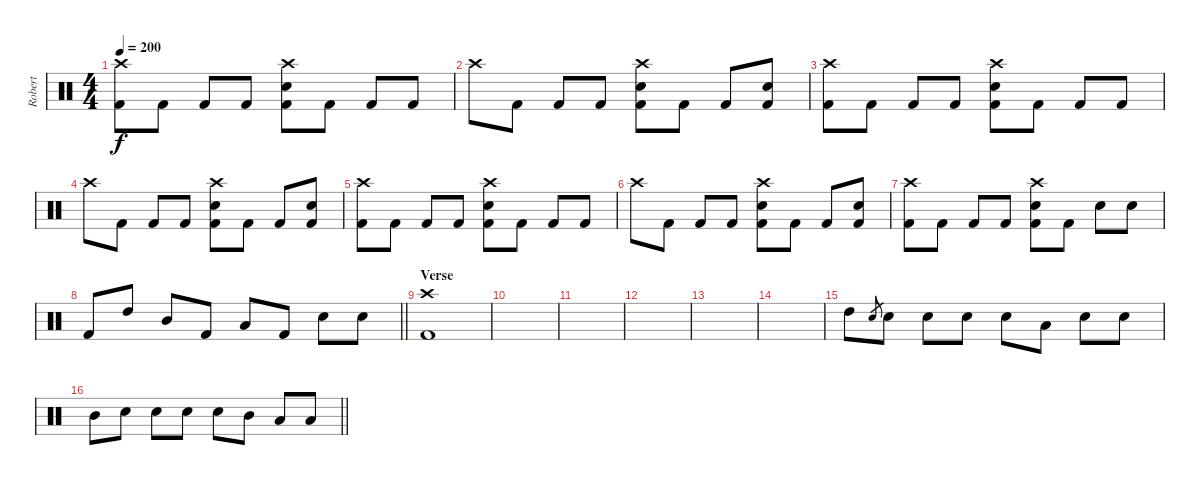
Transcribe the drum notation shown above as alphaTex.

\track ("Robert" "Robert") {instrument percussion}
\staff {score}
\articulation defaults
\ts (4 4)
\tempo 200
\clef neutral
\ks c
("Crash high (hit)" "Kick (hit) 2").8{dy f} "Kick (hit) 2".8 "Kick (hit) 2".8 "Kick (hit) 2".8 ("Crash high (hit)" "Electric Snare (hit)" "Kick (hit) 2").8 "Kick (hit) 2".8 "Kick (hit) 2".8 "Kick (hit) 2".8 |
"Crash high (hit)".8 "Kick (hit) 2".8 "Kick (hit) 2".8 "Kick (hit) 2".8 ("Crash high (hit)" "Electric Snare (hit)" "Kick (hit) 2").8 "Kick (hit) 2".8 "Kick (hit) 2".8 ("Electric Snare (hit)" "Kick (hit) 2").8 |
("Crash high (hit)" "Kick (hit) 2").8 "Kick (hit) 2".8 "Kick (hit) 2".8 "Kick (hit) 2".8 ("Crash high (hit)" "Electric Snare (hit)" "Kick (hit) 2").8 "Kick (hit) 2".8 "Kick (hit) 2".8 "Kick (hit) 2".8 |
"Crash high (hit)".8 "Kick (hit) 2".8 "Kick (hit) 2".8 "Kick (hit) 2".8 ("Crash high (hit)" "Electric Snare (hit)" "Kick (hit) 2").8 "Kick (hit) 2".8 "Kick (hit) 2".8 ("Electric Snare (hit)" "Kick (hit) 2").8 |
("Crash high (hit)" "Kick (hit) 2").8 "Kick (hit) 2".8 "Kick (hit) 2".8 "Kick (hit) 2".8 ("Crash high (hit)" "Electric Snare (hit)" "Kick (hit) 2").8 "Kick (hit) 2".8 "Kick (hit) 2".8 "Kick (hit) 2".8 |
"Crash high (hit)".8 "Kick (hit) 2".8 "Kick (hit) 2".8 "Kick (hit) 2".8 ("Crash high (hit)" "Electric Snare (hit)" "Kick (hit) 2").8 "Kick (hit) 2".8 "Kick (hit) 2".8 ("Electric Snare (hit)" "Kick (hit) 2").8 |
("Crash high (hit)" "Kick (hit) 2").8 "Kick (hit) 2".8 "Kick (hit) 2".8 "Kick (hit) 2".8 ("Crash high (hit)" "Electric Snare (hit)" "Kick (hit) 2").8 "Kick (hit) 2".8 "Electric Snare (hit)".8 "Electric Snare (hit)".8 |
\barLineRight lightlight "Kick (hit) 2".8 "High Tom (hit)".8 "Mid Tom (hit)".8 "Kick (hit) 2".8 "Low Tom (hit)".8 "Kick (hit) 2".8 "Electric Snare (hit)".8 "Electric Snare (hit)".8
|
\section ("" "Verse")
("Crash high (hit)" "Kick (hit) 2").1 |
|
|
|
|
|
"High Tom (hit)".8 "Electric Snare (hit)".8{gr} "Electric Snare (hit)".8 "Electric Snare (hit)".8 "Electric Snare (hit)".8 "Electric Snare (hit)".8 "Low Tom (hit)".8 "Electric Snare (hit)".8 "Electric Snare (hit)".8 |
\barLineRight lightlight "Mid Tom (hit)".8 "Electric Snare (hit)".8 "Electric Snare (hit)".8 "Electric Snare (hit)".8 "Electric Snare (hit)".8 "Mid Tom (hit)".8 "Low Tom (hit)".8 "Low Tom (hit)".8
